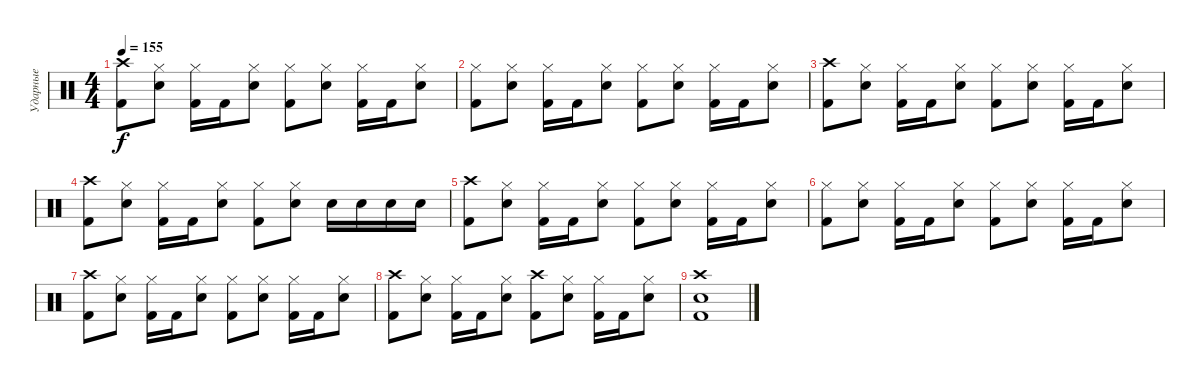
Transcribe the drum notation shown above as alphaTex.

\track ("Ударные" "Ударные") {instrument percussion}
\staff {score}
\articulation defaults
\ts (4 4)
\tempo 155
\clef neutral
\ks c
("Crash high (hit)" "Kick (hit) 2").8{dy f} ("Hi-Hat (closed)" "Electric Snare (hit)").8 ("Hi-Hat (closed)" "Kick (hit) 2").16 "Kick (hit) 2".16 ("Hi-Hat (closed)" "Electric Snare (hit)").8 ("Hi-Hat (closed)" "Kick (hit) 2").8 ("Hi-Hat (closed)" "Electric Snare (hit)").8 ("Hi-Hat (closed)" "Kick (hit) 2").16 "Kick (hit) 2".16 ("Hi-Hat (closed)" "Electric Snare (hit)").8 |
("Hi-Hat (closed)" "Kick (hit) 2").8 ("Hi-Hat (closed)" "Electric Snare (hit)").8 ("Hi-Hat (closed)" "Kick (hit) 2").16 "Kick (hit) 2".16 ("Hi-Hat (closed)" "Electric Snare (hit)").8 ("Hi-Hat (closed)" "Kick (hit) 2").8 ("Hi-Hat (closed)" "Electric Snare (hit)").8 ("Hi-Hat (closed)" "Kick (hit) 2").16 "Kick (hit) 2".16 ("Hi-Hat (closed)" "Electric Snare (hit)").8 |
("Crash high (hit)" "Kick (hit) 2").8 ("Hi-Hat (closed)" "Electric Snare (hit)").8 ("Hi-Hat (closed)" "Kick (hit) 2").16 "Kick (hit) 2".16 ("Hi-Hat (closed)" "Electric Snare (hit)").8 ("Hi-Hat (closed)" "Kick (hit) 2").8 ("Hi-Hat (closed)" "Electric Snare (hit)").8 ("Hi-Hat (closed)" "Kick (hit) 2").16 "Kick (hit) 2".16 ("Hi-Hat (closed)" "Electric Snare (hit)").8 |
("Crash high (hit)" "Kick (hit) 2").8 ("Hi-Hat (closed)" "Electric Snare (hit)").8 ("Hi-Hat (closed)" "Kick (hit) 2").16 "Kick (hit) 2".16 ("Hi-Hat (closed)" "Electric Snare (hit)").8 ("Hi-Hat (closed)" "Kick (hit) 2").8 ("Hi-Hat (closed)" "Electric Snare (hit)").8 "Electric Snare (hit)".16 "Electric Snare (hit)".16 "Electric Snare (hit)".16 "Electric Snare (hit)".16 |
("Crash high (hit)" "Kick (hit) 2").8 ("Hi-Hat (closed)" "Electric Snare (hit)").8 ("Hi-Hat (closed)" "Kick (hit) 2").16 "Kick (hit) 2".16 ("Hi-Hat (closed)" "Electric Snare (hit)").8 ("Hi-Hat (closed)" "Kick (hit) 2").8 ("Hi-Hat (closed)" "Electric Snare (hit)").8 ("Hi-Hat (closed)" "Kick (hit) 2").16 "Kick (hit) 2".16 ("Hi-Hat (closed)" "Electric Snare (hit)").8 |
("Hi-Hat (closed)" "Kick (hit) 2").8 ("Hi-Hat (closed)" "Electric Snare (hit)").8 ("Hi-Hat (closed)" "Kick (hit) 2").16 "Kick (hit) 2".16 ("Hi-Hat (closed)" "Electric Snare (hit)").8 ("Hi-Hat (closed)" "Kick (hit) 2").8 ("Hi-Hat (closed)" "Electric Snare (hit)").8 ("Hi-Hat (closed)" "Kick (hit) 2").16 "Kick (hit) 2".16 ("Hi-Hat (closed)" "Electric Snare (hit)").8 |
("Crash high (hit)" "Kick (hit) 2").8 ("Hi-Hat (closed)" "Electric Snare (hit)").8 ("Hi-Hat (closed)" "Kick (hit) 2").16 "Kick (hit) 2".16 ("Hi-Hat (closed)" "Electric Snare (hit)").8 ("Hi-Hat (closed)" "Kick (hit) 2").8 ("Hi-Hat (closed)" "Electric Snare (hit)").8 ("Hi-Hat (closed)" "Kick (hit) 2").16 "Kick (hit) 2".16 ("Hi-Hat (closed)" "Electric Snare (hit)").8 |
("Crash high (hit)" "Kick (hit) 2").8 ("Hi-Hat (closed)" "Electric Snare (hit)").8 ("Hi-Hat (closed)" "Kick (hit) 2").16 "Kick (hit) 2".16 ("Hi-Hat (closed)" "Electric Snare (hit)").8 ("Crash high (hit)" "Kick (hit) 2").8 ("Hi-Hat (closed)" "Electric Snare (hit)").8 ("Hi-Hat (closed)" "Kick (hit) 2").16 "Kick (hit) 2".16 ("Hi-Hat (closed)" "Electric Snare (hit)").8 |
("Crash high (hit)" "Electric Snare (hit)" "Kick (hit) 2").1
